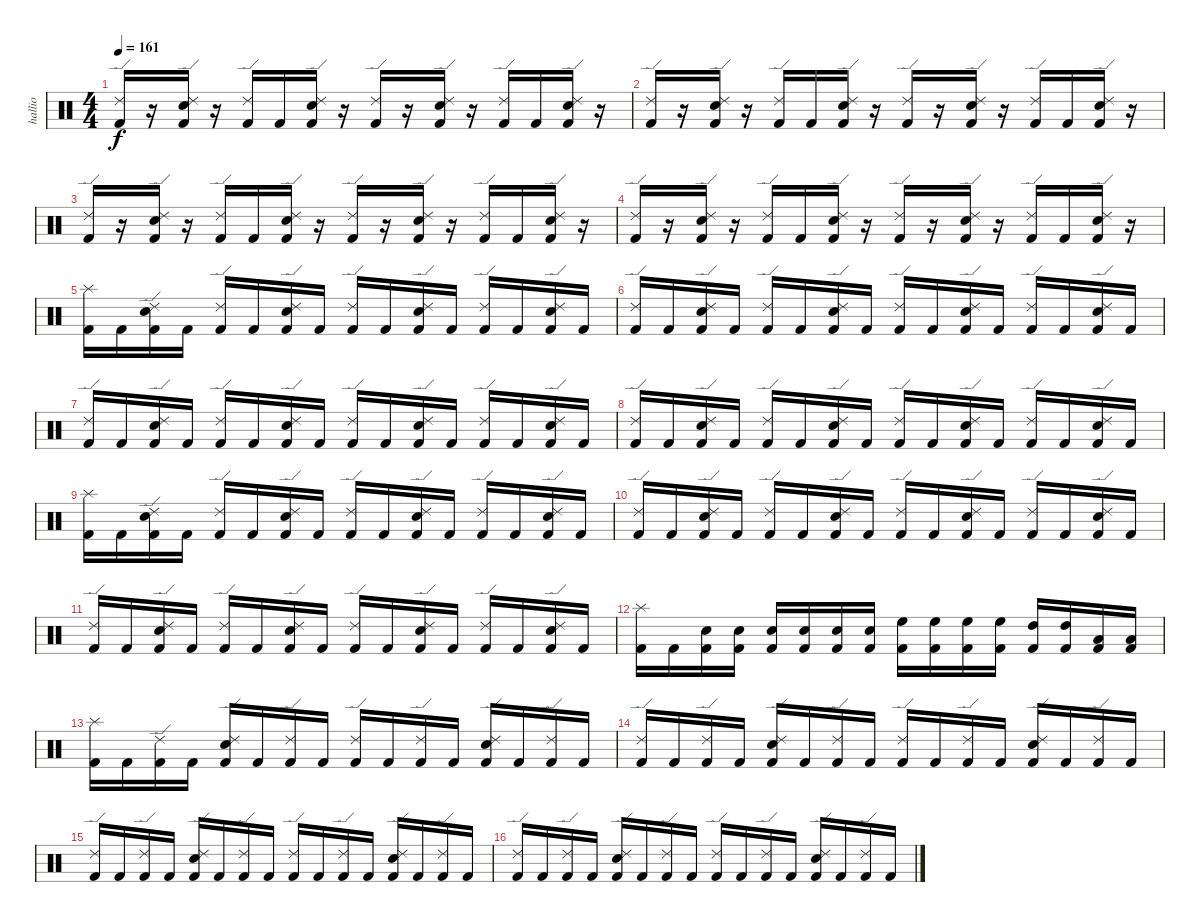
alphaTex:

\track ("hallio" "hallio") {instrument percussion}
\staff {score}
\articulation defaults
\ts (4 4)
\tempo 161
\clef neutral
\ks c
("Kick (hit) 2" "Ride (edge) 2").16{dy f} r.16 ("Kick (hit) 2" "Snare (hit) 2" "Ride (edge) 2").16 r.16 ("Kick (hit) 2" "Ride (edge) 2").16 "Kick (hit) 2".16 ("Kick (hit) 2" "Snare (hit) 2" "Ride (edge) 2").16 r.16 ("Kick (hit) 2" "Ride (edge) 2").16 r.16 ("Kick (hit) 2" "Snare (hit) 2" "Ride (edge) 2").16 r.16 ("Kick (hit) 2" "Ride (edge) 2").16 "Kick (hit) 2".16 ("Kick (hit) 2" "Snare (hit) 2" "Ride (edge) 2").16 r.16 |
("Kick (hit) 2" "Ride (edge) 2").16 r.16 ("Kick (hit) 2" "Snare (hit) 2" "Ride (edge) 2").16 r.16 ("Kick (hit) 2" "Ride (edge) 2").16 "Kick (hit) 2".16 ("Kick (hit) 2" "Snare (hit) 2" "Ride (edge) 2").16 r.16 ("Kick (hit) 2" "Ride (edge) 2").16 r.16 ("Kick (hit) 2" "Snare (hit) 2" "Ride (edge) 2").16 r.16 ("Kick (hit) 2" "Ride (edge) 2").16 "Kick (hit) 2".16 ("Kick (hit) 2" "Snare (hit) 2" "Ride (edge) 2").16 r.16 |
("Kick (hit) 2" "Ride (edge) 2").16 r.16 ("Kick (hit) 2" "Snare (hit) 2" "Ride (edge) 2").16 r.16 ("Kick (hit) 2" "Ride (edge) 2").16 "Kick (hit) 2".16 ("Kick (hit) 2" "Snare (hit) 2" "Ride (edge) 2").16 r.16 ("Kick (hit) 2" "Ride (edge) 2").16 r.16 ("Kick (hit) 2" "Snare (hit) 2" "Ride (edge) 2").16 r.16 ("Kick (hit) 2" "Ride (edge) 2").16 "Kick (hit) 2".16 ("Kick (hit) 2" "Snare (hit) 2" "Ride (edge) 2").16 r.16 |
("Kick (hit) 2" "Ride (edge) 2").16 r.16 ("Kick (hit) 2" "Snare (hit) 2" "Ride (edge) 2").16 r.16 ("Kick (hit) 2" "Ride (edge) 2").16 "Kick (hit) 2".16 ("Kick (hit) 2" "Snare (hit) 2" "Ride (edge) 2").16 r.16 ("Kick (hit) 2" "Ride (edge) 2").16 r.16 ("Kick (hit) 2" "Snare (hit) 2" "Ride (edge) 2").16 r.16 ("Kick (hit) 2" "Ride (edge) 2").16 "Kick (hit) 2".16 ("Kick (hit) 2" "Snare (hit) 2" "Ride (edge) 2").16 r.16 |
("Kick (hit) 2" "Splash (hit)").16 "Kick (hit) 2".16 ("Kick (hit) 2" "Snare (hit) 2" "Ride (edge) 2").16 "Kick (hit) 2".16 ("Kick (hit) 2" "Ride (edge) 2").16 "Kick (hit) 2".16 ("Kick (hit) 2" "Snare (hit) 2" "Ride (edge) 2").16 "Kick (hit) 2".16 ("Kick (hit) 2" "Ride (edge) 2").16 "Kick (hit) 2".16 ("Kick (hit) 2" "Snare (hit) 2" "Ride (edge) 2").16 "Kick (hit) 2".16 ("Kick (hit) 2" "Ride (edge) 2").16 "Kick (hit) 2".16 ("Kick (hit) 2" "Snare (hit) 2" "Ride (edge) 2").16 "Kick (hit) 2".16 |
("Kick (hit) 2" "Ride (edge) 2").16 "Kick (hit) 2".16 ("Kick (hit) 2" "Snare (hit) 2" "Ride (edge) 2").16 "Kick (hit) 2".16 ("Kick (hit) 2" "Ride (edge) 2").16 "Kick (hit) 2".16 ("Kick (hit) 2" "Snare (hit) 2" "Ride (edge) 2").16 "Kick (hit) 2".16 ("Kick (hit) 2" "Ride (edge) 2").16 "Kick (hit) 2".16 ("Kick (hit) 2" "Snare (hit) 2" "Ride (edge) 2").16 "Kick (hit) 2".16 ("Kick (hit) 2" "Ride (edge) 2").16 "Kick (hit) 2".16 ("Kick (hit) 2" "Snare (hit) 2" "Ride (edge) 2").16 "Kick (hit) 2".16 |
("Kick (hit) 2" "Ride (edge) 2").16 "Kick (hit) 2".16 ("Kick (hit) 2" "Snare (hit) 2" "Ride (edge) 2").16 "Kick (hit) 2".16 ("Kick (hit) 2" "Ride (edge) 2").16 "Kick (hit) 2".16 ("Kick (hit) 2" "Snare (hit) 2" "Ride (edge) 2").16 "Kick (hit) 2".16 ("Kick (hit) 2" "Ride (edge) 2").16 "Kick (hit) 2".16 ("Kick (hit) 2" "Snare (hit) 2" "Ride (edge) 2").16 "Kick (hit) 2".16 ("Kick (hit) 2" "Ride (edge) 2").16 "Kick (hit) 2".16 ("Kick (hit) 2" "Snare (hit) 2" "Ride (edge) 2").16 "Kick (hit) 2".16 |
("Kick (hit) 2" "Ride (edge) 2").16 "Kick (hit) 2".16 ("Kick (hit) 2" "Snare (hit) 2" "Ride (edge) 2").16 "Kick (hit) 2".16 ("Kick (hit) 2" "Ride (edge) 2").16 "Kick (hit) 2".16 ("Kick (hit) 2" "Snare (hit) 2" "Ride (edge) 2").16 "Kick (hit) 2".16 ("Kick (hit) 2" "Ride (edge) 2").16 "Kick (hit) 2".16 ("Kick (hit) 2" "Snare (hit) 2" "Ride (edge) 2").16 "Kick (hit) 2".16 ("Kick (hit) 2" "Ride (edge) 2").16 "Kick (hit) 2".16 ("Kick (hit) 2" "Snare (hit) 2" "Ride (edge) 2").16 "Kick (hit) 2".16 |
("Kick (hit) 2" "Splash (hit)").16 "Kick (hit) 2".16 ("Kick (hit) 2" "Snare (hit) 2" "Ride (edge) 2").16 "Kick (hit) 2".16 ("Kick (hit) 2" "Ride (edge) 2").16 "Kick (hit) 2".16 ("Kick (hit) 2" "Snare (hit) 2" "Ride (edge) 2").16 "Kick (hit) 2".16 ("Kick (hit) 2" "Ride (edge) 2").16 "Kick (hit) 2".16 ("Kick (hit) 2" "Snare (hit) 2" "Ride (edge) 2").16 "Kick (hit) 2".16 ("Kick (hit) 2" "Ride (edge) 2").16 "Kick (hit) 2".16 ("Kick (hit) 2" "Snare (hit) 2" "Ride (edge) 2").16 "Kick (hit) 2".16 |
("Kick (hit) 2" "Ride (edge) 2").16 "Kick (hit) 2".16 ("Kick (hit) 2" "Snare (hit) 2" "Ride (edge) 2").16 "Kick (hit) 2".16 ("Kick (hit) 2" "Ride (edge) 2").16 "Kick (hit) 2".16 ("Kick (hit) 2" "Snare (hit) 2" "Ride (edge) 2").16 "Kick (hit) 2".16 ("Kick (hit) 2" "Ride (edge) 2").16 "Kick (hit) 2".16 ("Kick (hit) 2" "Snare (hit) 2" "Ride (edge) 2").16 "Kick (hit) 2".16 ("Kick (hit) 2" "Ride (edge) 2").16 "Kick (hit) 2".16 ("Kick (hit) 2" "Snare (hit) 2" "Ride (edge) 2").16 "Kick (hit) 2".16 |
("Kick (hit) 2" "Ride (edge) 2").16 "Kick (hit) 2".16 ("Kick (hit) 2" "Snare (hit) 2" "Ride (edge) 2").16 "Kick (hit) 2".16 ("Kick (hit) 2" "Ride (edge) 2").16 "Kick (hit) 2".16 ("Kick (hit) 2" "Snare (hit) 2" "Ride (edge) 2").16 "Kick (hit) 2".16 ("Kick (hit) 2" "Ride (edge) 2").16 "Kick (hit) 2".16 ("Kick (hit) 2" "Snare (hit) 2" "Ride (edge) 2").16 "Kick (hit) 2".16 ("Kick (hit) 2" "Ride (edge) 2").16 "Kick (hit) 2".16 ("Kick (hit) 2" "Snare (hit) 2" "Ride (edge) 2").16 "Kick (hit) 2".16 |
("Kick (hit) 2" "Splash (hit)").16 "Kick (hit) 2".16 ("Kick (hit) 2" "Snare (hit) 2").16 ("Kick (hit) 2" "Snare (hit) 2").16 ("Kick (hit) 2" "Snare (hit) 2").16 ("Kick (hit) 2" "Snare (hit) 2").16 ("Kick (hit) 2" "Snare (hit) 2").16 ("Kick (hit) 2" "Snare (hit) 2").16 ("Kick (hit) 2" "High Floor Tom (hit)").16 ("Kick (hit) 2" "High Floor Tom (hit)").16 ("Kick (hit) 2" "High Floor Tom (hit)").16 ("Kick (hit) 2" "High Floor Tom (hit)").16 ("Kick (hit) 2" "High Tom (hit)").16 ("Kick (hit) 2" "High Tom (hit)").16 ("Kick (hit) 2" "Low Tom (hit)").16 ("Kick (hit) 2" "Low Tom (hit)").16 |
("Kick (hit) 2" "Splash (hit)").16 "Kick (hit) 2".16 ("Kick (hit) 2" "Ride (edge) 2").16 "Kick (hit) 2".16 ("Kick (hit) 2" "Snare (hit) 2" "Ride (edge) 2").16 "Kick (hit) 2".16 ("Kick (hit) 2" "Ride (edge) 2").16 "Kick (hit) 2".16 ("Kick (hit) 2" "Ride (edge) 2").16 "Kick (hit) 2".16 ("Kick (hit) 2" "Ride (edge) 2").16 "Kick (hit) 2".16 ("Kick (hit) 2" "Snare (hit) 2" "Ride (edge) 2").16 "Kick (hit) 2".16 ("Kick (hit) 2" "Ride (edge) 2").16 "Kick (hit) 2".16 |
("Kick (hit) 2" "Ride (edge) 2").16 "Kick (hit) 2".16 ("Kick (hit) 2" "Ride (edge) 2").16 "Kick (hit) 2".16 ("Kick (hit) 2" "Snare (hit) 2" "Ride (edge) 2").16 "Kick (hit) 2".16 ("Kick (hit) 2" "Ride (edge) 2").16 "Kick (hit) 2".16 ("Kick (hit) 2" "Ride (edge) 2").16 "Kick (hit) 2".16 ("Kick (hit) 2" "Ride (edge) 2").16 "Kick (hit) 2".16 ("Kick (hit) 2" "Snare (hit) 2" "Ride (edge) 2").16 "Kick (hit) 2".16 ("Kick (hit) 2" "Ride (edge) 2").16 "Kick (hit) 2".16 |
("Kick (hit) 2" "Ride (edge) 2").16 "Kick (hit) 2".16 ("Kick (hit) 2" "Ride (edge) 2").16 "Kick (hit) 2".16 ("Kick (hit) 2" "Snare (hit) 2" "Ride (edge) 2").16 "Kick (hit) 2".16 ("Kick (hit) 2" "Ride (edge) 2").16 "Kick (hit) 2".16 ("Kick (hit) 2" "Ride (edge) 2").16 "Kick (hit) 2".16 ("Kick (hit) 2" "Ride (edge) 2").16 "Kick (hit) 2".16 ("Kick (hit) 2" "Snare (hit) 2" "Ride (edge) 2").16 "Kick (hit) 2".16 ("Kick (hit) 2" "Ride (edge) 2").16 "Kick (hit) 2".16 |
("Kick (hit) 2" "Ride (edge) 2").16 "Kick (hit) 2".16 ("Kick (hit) 2" "Ride (edge) 2").16 "Kick (hit) 2".16 ("Kick (hit) 2" "Snare (hit) 2" "Ride (edge) 2").16 "Kick (hit) 2".16 ("Kick (hit) 2" "Ride (edge) 2").16 "Kick (hit) 2".16 ("Kick (hit) 2" "Ride (edge) 2").16 "Kick (hit) 2".16 ("Kick (hit) 2" "Ride (edge) 2").16 "Kick (hit) 2".16 ("Kick (hit) 2" "Snare (hit) 2" "Ride (edge) 2").16 "Kick (hit) 2".16 ("Kick (hit) 2" "Ride (edge) 2").16 "Kick (hit) 2".16
